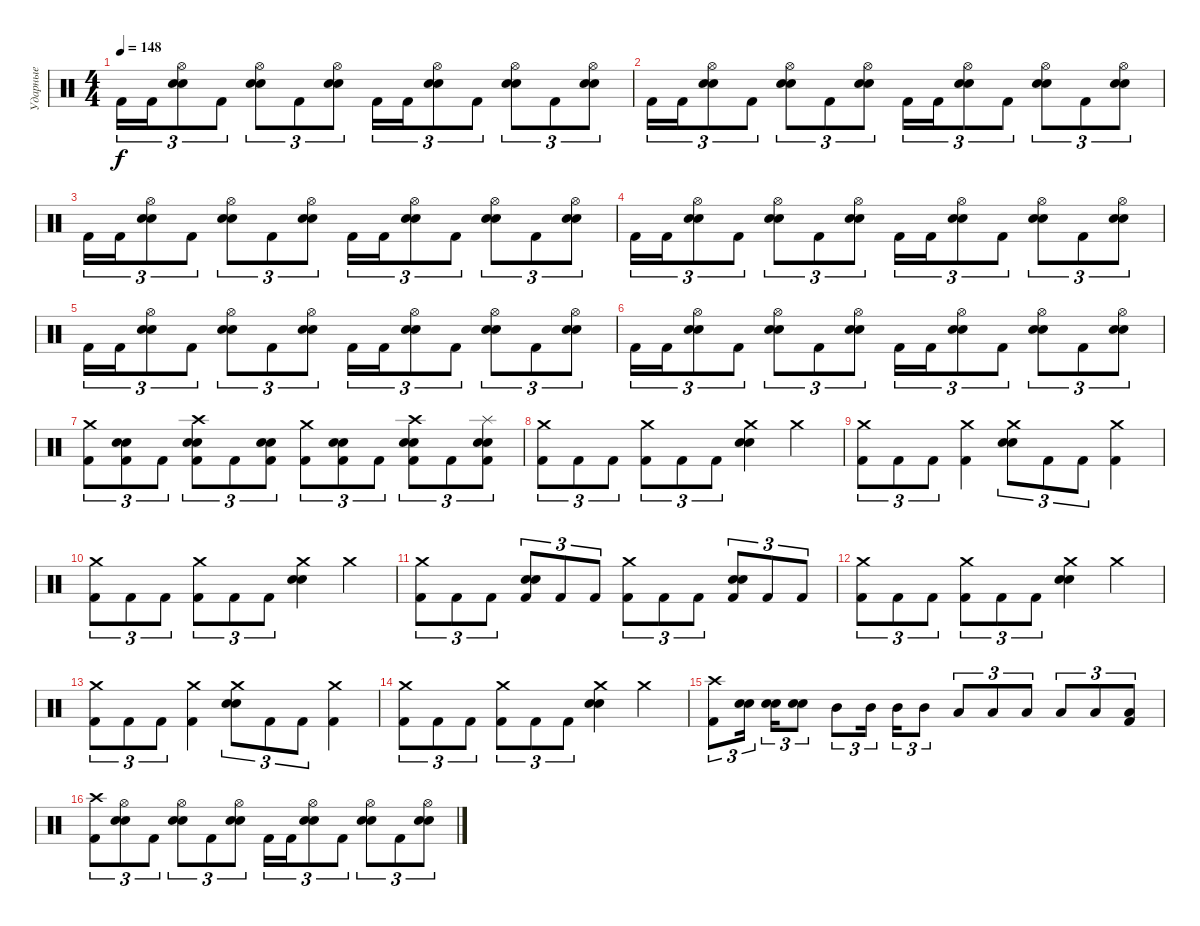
\track ("Ударные" "Ударные") {instrument percussion}
\staff {score}
\articulation defaults
\ts (4 4)
\tempo 148
\clef neutral
\ks c "Kick (hit) 2".16{tu (3 2) dy f} "Kick (hit) 2".16{tu (3 2)}
("Hi-Hat (open)" "Snare (hit) 2" "Electric Snare (hit)").8{tu (3 2)} "Kick (hit) 2".8{tu (3 2)} ("Hi-Hat (open)" "Snare (hit) 2" "Electric Snare (hit)").8{tu (3 2)} "Kick (hit) 2".8{tu (3 2)} ("Hi-Hat (open)" "Snare (hit) 2" "Electric Snare (hit)").8{tu (3 2)} "Kick (hit) 2".16{tu (3 2)} "Kick (hit) 2".16{tu (3 2)} ("Hi-Hat (open)" "Snare (hit) 2" "Electric Snare (hit)").8{tu (3 2)} "Kick (hit) 2".8{tu (3 2)} ("Hi-Hat (open)" "Snare (hit) 2" "Electric Snare (hit)").8{tu (3 2)} "Kick (hit) 2".8{tu (3 2)} ("Hi-Hat (open)" "Snare (hit) 2" "Electric Snare (hit)").8{tu (3 2)} |
"Kick (hit) 2".16{tu (3 2)} "Kick (hit) 2".16{tu (3 2)} ("Hi-Hat (open)" "Snare (hit) 2" "Electric Snare (hit)").8{tu (3 2)} "Kick (hit) 2".8{tu (3 2)} ("Hi-Hat (open)" "Snare (hit) 2" "Electric Snare (hit)").8{tu (3 2)} "Kick (hit) 2".8{tu (3 2)} ("Hi-Hat (open)" "Snare (hit) 2" "Electric Snare (hit)").8{tu (3 2)} "Kick (hit) 2".16{tu (3 2)} "Kick (hit) 2".16{tu (3 2)} ("Hi-Hat (open)" "Snare (hit) 2" "Electric Snare (hit)").8{tu (3 2)} "Kick (hit) 2".8{tu (3 2)} ("Hi-Hat (open)" "Snare (hit) 2" "Electric Snare (hit)").8{tu (3 2)} "Kick (hit) 2".8{tu (3 2)} ("Hi-Hat (open)" "Snare (hit) 2" "Electric Snare (hit)").8{tu (3 2)} |
"Kick (hit) 2".16{tu (3 2)} "Kick (hit) 2".16{tu (3 2)} ("Hi-Hat (open)" "Snare (hit) 2" "Electric Snare (hit)").8{tu (3 2)} "Kick (hit) 2".8{tu (3 2)} ("Hi-Hat (open)" "Snare (hit) 2" "Electric Snare (hit)").8{tu (3 2)} "Kick (hit) 2".8{tu (3 2)} ("Hi-Hat (open)" "Snare (hit) 2" "Electric Snare (hit)").8{tu (3 2)} "Kick (hit) 2".16{tu (3 2)} "Kick (hit) 2".16{tu (3 2)} ("Hi-Hat (open)" "Snare (hit) 2" "Electric Snare (hit)").8{tu (3 2)} "Kick (hit) 2".8{tu (3 2)} ("Hi-Hat (open)" "Snare (hit) 2" "Electric Snare (hit)").8{tu (3 2)} "Kick (hit) 2".8{tu (3 2)} ("Hi-Hat (open)" "Snare (hit) 2" "Electric Snare (hit)").8{tu (3 2)} |
"Kick (hit) 2".16{tu (3 2)} "Kick (hit) 2".16{tu (3 2)} ("Hi-Hat (open)" "Snare (hit) 2" "Electric Snare (hit)").8{tu (3 2)} "Kick (hit) 2".8{tu (3 2)} ("Hi-Hat (open)" "Snare (hit) 2" "Electric Snare (hit)").8{tu (3 2)} "Kick (hit) 2".8{tu (3 2)} ("Hi-Hat (open)" "Snare (hit) 2" "Electric Snare (hit)").8{tu (3 2)} "Kick (hit) 2".16{tu (3 2)} "Kick (hit) 2".16{tu (3 2)} ("Hi-Hat (open)" "Snare (hit) 2" "Electric Snare (hit)").8{tu (3 2)} "Kick (hit) 2".8{tu (3 2)} ("Hi-Hat (open)" "Snare (hit) 2" "Electric Snare (hit)").8{tu (3 2)} "Kick (hit) 2".8{tu (3 2)} ("Hi-Hat (open)" "Snare (hit) 2" "Electric Snare (hit)").8{tu (3 2)} |
"Kick (hit) 2".16{tu (3 2)} "Kick (hit) 2".16{tu (3 2)} ("Hi-Hat (open)" "Snare (hit) 2" "Electric Snare (hit)").8{tu (3 2)} "Kick (hit) 2".8{tu (3 2)} ("Hi-Hat (open)" "Snare (hit) 2" "Electric Snare (hit)").8{tu (3 2)} "Kick (hit) 2".8{tu (3 2)} ("Hi-Hat (open)" "Snare (hit) 2" "Electric Snare (hit)").8{tu (3 2)} "Kick (hit) 2".16{tu (3 2)} "Kick (hit) 2".16{tu (3 2)} ("Hi-Hat (open)" "Snare (hit) 2" "Electric Snare (hit)").8{tu (3 2)} "Kick (hit) 2".8{tu (3 2)} ("Hi-Hat (open)" "Snare (hit) 2" "Electric Snare (hit)").8{tu (3 2)} "Kick (hit) 2".8{tu (3 2)} ("Hi-Hat (open)" "Snare (hit) 2" "Electric Snare (hit)").8{tu (3 2)} |
"Kick (hit) 2".16{tu (3 2)} "Kick (hit) 2".16{tu (3 2)} ("Hi-Hat (open)" "Snare (hit) 2" "Electric Snare (hit)").8{tu (3 2)} "Kick (hit) 2".8{tu (3 2)} ("Hi-Hat (open)" "Snare (hit) 2" "Electric Snare (hit)").8{tu (3 2)} "Kick (hit) 2".8{tu (3 2)} ("Hi-Hat (open)" "Snare (hit) 2" "Electric Snare (hit)").8{tu (3 2)} "Kick (hit) 2".16{tu (3 2)} "Kick (hit) 2".16{tu (3 2)} ("Hi-Hat (open)" "Snare (hit) 2" "Electric Snare (hit)").8{tu (3 2)} "Kick (hit) 2".8{tu (3 2)} ("Hi-Hat (open)" "Snare (hit) 2" "Electric Snare (hit)").8{tu (3 2)} "Kick (hit) 2".8{tu (3 2)} ("Hi-Hat (open)" "Snare (hit) 2" "Electric Snare (hit)").8{tu (3 2)} |
("Crash medium (hit)" "Kick (hit) 2").8{tu (3 2)} ("Electric Snare (hit)" "Snare (hit) 2" "Kick (hit) 2").8{tu (3 2)} "Kick (hit) 2".8{tu (3 2)} ("Crash high (hit)" "Electric Snare (hit)" "Snare (hit) 2" "Kick (hit) 2").8{tu (3 2)} "Kick (hit) 2".8{tu (3 2)} ("Electric Snare (hit)" "Snare (hit) 2" "Kick (hit) 2").8{tu (3 2)} ("Crash medium (hit)" "Kick (hit) 2").8{tu (3 2)} ("Electric Snare (hit)" "Snare (hit) 2" "Kick (hit) 2").8{tu (3 2)} "Kick (hit) 2".8{tu (3 2)} ("Crash high (hit)" "Electric Snare (hit)" "Snare (hit) 2" "Kick (hit) 2").8{tu (3 2)} "Kick (hit) 2".8{tu (3 2)} ("Splash (hit)" "Electric Snare (hit)" "Snare (hit) 2" "Kick (hit) 2").8{tu (3 2)} |
("Crash medium (hit)" "Kick (hit) 2").8{tu (3 2)} "Kick (hit) 2".8{tu (3 2)} "Kick (hit) 2".8{tu (3 2)} ("Crash medium (hit)" "Kick (hit) 2").8{tu (3 2)} "Kick (hit) 2".8{tu (3 2)} "Kick (hit) 2".8{tu (3 2)} ("Crash medium (hit)" "Electric Snare (hit)" "Snare (hit) 2").4 "Crash medium (hit)".4 |
("Crash medium (hit)" "Kick (hit) 2").8{tu (3 2)} "Kick (hit) 2".8{tu (3 2)} "Kick (hit) 2".8{tu (3 2)} ("Crash medium (hit)" "Kick (hit) 2").4 ("Crash medium (hit)" "Electric Snare (hit)" "Snare (hit) 2").8{tu (3 2)} "Kick (hit) 2".8{tu (3 2)} "Kick (hit) 2".8{tu (3 2)} ("Crash medium (hit)" "Kick (hit) 2").4 |
("Crash medium (hit)" "Kick (hit) 2").8{tu (3 2)} "Kick (hit) 2".8{tu (3 2)} "Kick (hit) 2".8{tu (3 2)} ("Crash medium (hit)" "Kick (hit) 2").8{tu (3 2)} "Kick (hit) 2".8{tu (3 2)} "Kick (hit) 2".8{tu (3 2)} ("Crash medium (hit)" "Electric Snare (hit)" "Snare (hit) 2").4 "Crash medium (hit)".4 |
("Crash medium (hit)" "Kick (hit) 2").8{tu (3 2)} "Kick (hit) 2".8{tu (3 2)} "Kick (hit) 2".8{tu (3 2)} ("Electric Snare (hit)" "Snare (hit) 2" "Kick (hit) 2").8{tu (3 2)} "Kick (hit) 2".8{tu (3 2)} "Kick (hit) 2".8{tu (3 2)} ("Crash medium (hit)" "Kick (hit) 2").8{tu (3 2)} "Kick (hit) 2".8{tu (3 2)} "Kick (hit) 2".8{tu (3 2)} ("Electric Snare (hit)" "Snare (hit) 2" "Kick (hit) 2").8{tu (3 2)} "Kick (hit) 2".8{tu (3 2)} "Kick (hit) 2".8{tu (3 2)} |
("Crash medium (hit)" "Kick (hit) 2").8{tu (3 2)} "Kick (hit) 2".8{tu (3 2)} "Kick (hit) 2".8{tu (3 2)} ("Crash medium (hit)" "Kick (hit) 2").8{tu (3 2)} "Kick (hit) 2".8{tu (3 2)} "Kick (hit) 2".8{tu (3 2)} ("Crash medium (hit)" "Electric Snare (hit)" "Snare (hit) 2").4 "Crash medium (hit)".4 |
("Crash medium (hit)" "Kick (hit) 2").8{tu (3 2)} "Kick (hit) 2".8{tu (3 2)} "Kick (hit) 2".8{tu (3 2)} ("Crash medium (hit)" "Kick (hit) 2").4 ("Crash medium (hit)" "Electric Snare (hit)" "Snare (hit) 2").8{tu (3 2)} "Kick (hit) 2".8{tu (3 2)} "Kick (hit) 2".8{tu (3 2)} ("Crash medium (hit)" "Kick (hit) 2").4 |
("Crash medium (hit)" "Kick (hit) 2").8{tu (3 2)} "Kick (hit) 2".8{tu (3 2)} "Kick (hit) 2".8{tu (3 2)} ("Crash medium (hit)" "Kick (hit) 2").8{tu (3 2)} "Kick (hit) 2".8{tu (3 2)} "Kick (hit) 2".8{tu (3 2)} ("Crash medium (hit)" "Electric Snare (hit)" "Snare (hit) 2").4 "Crash medium (hit)".4 |
("Crash high (hit)" "Kick (hit) 2").8{tu (3 2)} ("Electric Snare (hit)" "Snare (hit) 2").16{tu (3 2) beam splitsecondary} ("Electric Snare (hit)" "Snare (hit) 2").16{tu (3 2)} ("Electric Snare (hit)" "Snare (hit) 2").8{tu (3 2)} "Mid Tom (hit)".8{tu (3 2)} "Mid Tom (hit)".16{tu (3 2) beam splitsecondary} "Mid Tom (hit)".16{tu (3 2)} "Mid Tom (hit)".8{tu (3 2)} "Low Tom (hit)".8{tu (3 2)} "Low Tom (hit)".8{tu (3 2)} "Low Tom (hit)".8{tu (3 2)} "Low Floor Tom (hit)".8{tu (3 2)} "Low Floor Tom (hit)".8{tu (3 2)} ("Low Floor Tom (hit)" "Kick (hit) 2").8{tu (3 2)} |
("Crash high (hit)" "Kick (hit) 2").8{tu (3 2)} ("Hi-Hat (open)" "Snare (hit) 2" "Electric Snare (hit)").8{tu (3 2)} "Kick (hit) 2".8{tu (3 2)} ("Hi-Hat (open)" "Snare (hit) 2" "Electric Snare (hit)").8{tu (3 2)} "Kick (hit) 2".8{tu (3 2)} ("Hi-Hat (open)" "Snare (hit) 2" "Electric Snare (hit)").8{tu (3 2)} "Kick (hit) 2".16{tu (3 2)} "Kick (hit) 2".16{tu (3 2)} ("Hi-Hat (open)" "Snare (hit) 2" "Electric Snare (hit)").8{tu (3 2)} "Kick (hit) 2".8{tu (3 2)} ("Hi-Hat (open)" "Snare (hit) 2" "Electric Snare (hit)").8{tu (3 2)} "Kick (hit) 2".8{tu (3 2)} ("Hi-Hat (open)" "Snare (hit) 2" "Electric Snare (hit)").8{tu (3 2)}
